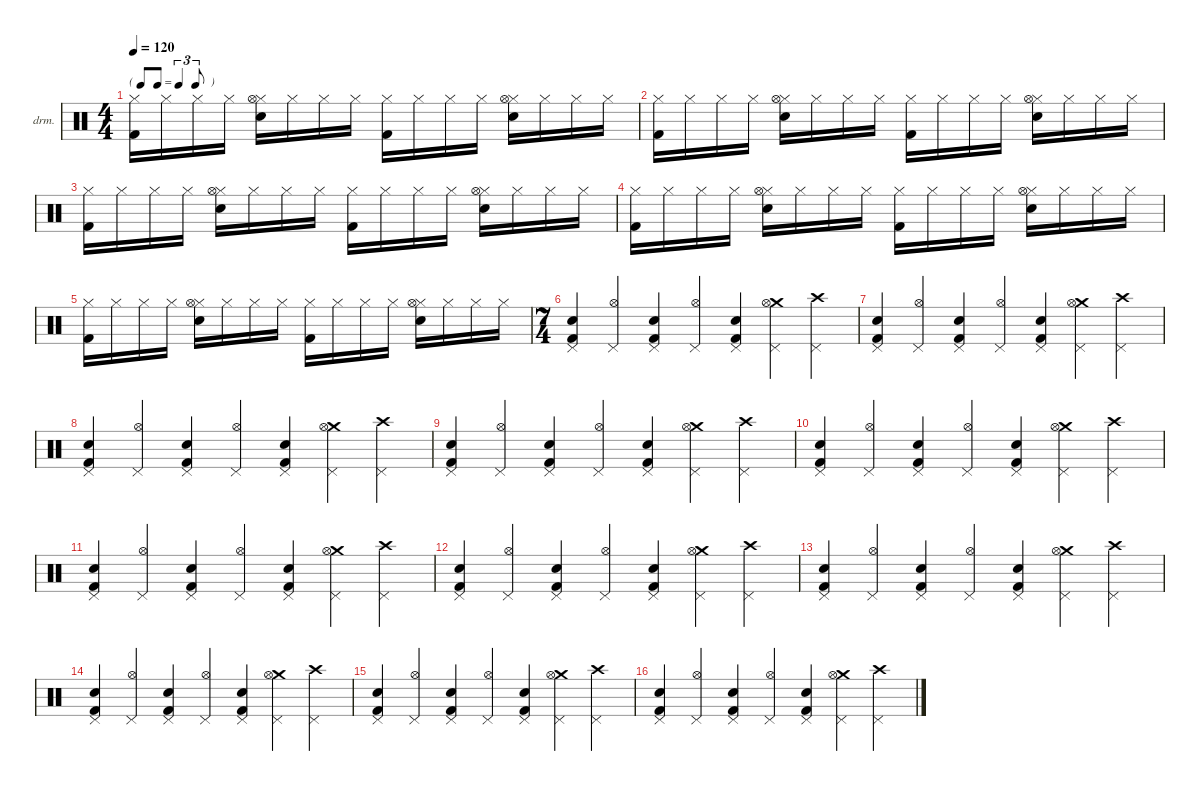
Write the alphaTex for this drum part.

\defaultSystemsLayout 4
\hideDynamics
\bracketExtendMode nobrackets
\firstSystemTrackNameOrientation horizontal
\otherSystemsTrackNameOrientation horizontal
\track ("Percussions" "drm.") {instrument percussion}
\staff {score}
\articulation defaults
\ts (4 4)
\tf triplet8th
\tempo 120
\clef neutral
\ks c
("Hi-Hat (closed)" "Kick (hit) 2").16{dy f beam Down} "Hi-Hat (closed)".16{beam Down} "Hi-Hat (closed)".16{beam Down} "Hi-Hat (closed)".16{beam Down} ("Snare (hit) 2" "Hi-Hat (closed)" "Hi-Hat (open)").16{beam Down} "Hi-Hat (closed)".16{beam Down} "Hi-Hat (closed)".16{beam Down} "Hi-Hat (closed)".16{beam Down} ("Hi-Hat (closed)" "Kick (hit) 2").16{beam Down} "Hi-Hat (closed)".16{beam Down} "Hi-Hat (closed)".16{beam Down} "Hi-Hat (closed)".16{beam Down} ("Snare (hit) 2" "Hi-Hat (closed)" "Hi-Hat (open)").16{beam Down} "Hi-Hat (closed)".16{beam Down} "Hi-Hat (closed)".16{beam Down} "Hi-Hat (closed)".16{beam Down} |
("Hi-Hat (closed)" "Kick (hit) 2").16{beam Down} "Hi-Hat (closed)".16{beam Down} "Hi-Hat (closed)".16{beam Down} "Hi-Hat (closed)".16{beam Down} ("Snare (hit) 2" "Hi-Hat (closed)" "Hi-Hat (open)").16{beam Down} "Hi-Hat (closed)".16{beam Down} "Hi-Hat (closed)".16{beam Down} "Hi-Hat (closed)".16{beam Down} ("Hi-Hat (closed)" "Kick (hit) 2").16{beam Down} "Hi-Hat (closed)".16{beam Down} "Hi-Hat (closed)".16{beam Down} "Hi-Hat (closed)".16{beam Down} ("Snare (hit) 2" "Hi-Hat (closed)" "Hi-Hat (open)").16{beam Down} "Hi-Hat (closed)".16{beam Down} "Hi-Hat (closed)".16{beam Down} "Hi-Hat (closed)".16{beam Down} |
("Hi-Hat (closed)" "Kick (hit) 2").16{beam Down} "Hi-Hat (closed)".16{beam Down} "Hi-Hat (closed)".16{beam Down} "Hi-Hat (closed)".16{beam Down} ("Snare (hit) 2" "Hi-Hat (closed)" "Hi-Hat (open)").16{beam Down} "Hi-Hat (closed)".16{beam Down} "Hi-Hat (closed)".16{beam Down} "Hi-Hat (closed)".16{beam Down} ("Hi-Hat (closed)" "Kick (hit) 2").16{beam Down} "Hi-Hat (closed)".16{beam Down} "Hi-Hat (closed)".16{beam Down} "Hi-Hat (closed)".16{beam Down} ("Snare (hit) 2" "Hi-Hat (closed)" "Hi-Hat (open)").16{beam Down} "Hi-Hat (closed)".16{beam Down} "Hi-Hat (closed)".16{beam Down} "Hi-Hat (closed)".16{beam Down} |
("Hi-Hat (closed)" "Kick (hit) 2").16{beam Down} "Hi-Hat (closed)".16{beam Down} "Hi-Hat (closed)".16{beam Down} "Hi-Hat (closed)".16{beam Down} ("Snare (hit) 2" "Hi-Hat (closed)" "Hi-Hat (open)").16{beam Down} "Hi-Hat (closed)".16{beam Down} "Hi-Hat (closed)".16{beam Down} "Hi-Hat (closed)".16{beam Down} ("Hi-Hat (closed)" "Kick (hit) 2").16{beam Down} "Hi-Hat (closed)".16{beam Down} "Hi-Hat (closed)".16{beam Down} "Hi-Hat (closed)".16{beam Down} ("Snare (hit) 2" "Hi-Hat (closed)" "Hi-Hat (open)").16{beam Down} "Hi-Hat (closed)".16{beam Down} "Hi-Hat (closed)".16{beam Down} "Hi-Hat (closed)".16{beam Down} |
("Hi-Hat (closed)" "Kick (hit) 2").16{beam Down} "Hi-Hat (closed)".16{beam Down} "Hi-Hat (closed)".16{beam Down} "Hi-Hat (closed)".16{beam Down} ("Snare (hit) 2" "Hi-Hat (closed)" "Hi-Hat (open)").16{beam Down} "Hi-Hat (closed)".16{beam Down} "Hi-Hat (closed)".16{beam Down} "Hi-Hat (closed)".16{beam Down} ("Hi-Hat (closed)" "Kick (hit) 2").16{beam Down} "Hi-Hat (closed)".16{beam Down} "Hi-Hat (closed)".16{beam Down} "Hi-Hat (closed)".16{beam Down} ("Snare (hit) 2" "Hi-Hat (closed)" "Hi-Hat (open)").16{beam Down} "Hi-Hat (closed)".16{beam Down} "Hi-Hat (closed)".16{beam Down} "Hi-Hat (closed)".16{beam Down} |
\ts (7 4)
\beaming (8 6 4 4)
("Kick (hit) 2" "Snare (hit) 2" "Pedal Hi-Hat (hit)").4{beam Up} ("Hi-Hat (open)" "Pedal Hi-Hat (hit)").4{beam Up} ("Kick (hit) 2" "Snare (hit) 2" "Pedal Hi-Hat (hit)").4{beam Up} ("Hi-Hat (open)" "Pedal Hi-Hat (hit)").4{beam Up} ("Kick (hit) 2" "Snare (hit) 2" "Pedal Hi-Hat (hit)").4{beam Up} ("Crash medium (hit)" "Hi-Hat (open)" "Pedal Hi-Hat (hit)").4{beam Down} ("Crash high (hit)" "Pedal Hi-Hat (hit)").4{beam Down} |
("Kick (hit) 2" "Snare (hit) 2" "Pedal Hi-Hat (hit)").4{beam Up} ("Hi-Hat (open)" "Pedal Hi-Hat (hit)").4{beam Up} ("Kick (hit) 2" "Snare (hit) 2" "Pedal Hi-Hat (hit)").4{beam Up} ("Hi-Hat (open)" "Pedal Hi-Hat (hit)").4{beam Up} ("Kick (hit) 2" "Snare (hit) 2" "Pedal Hi-Hat (hit)").4{beam Up} ("Crash medium (hit)" "Hi-Hat (open)" "Pedal Hi-Hat (hit)").4{beam Down} ("Crash high (hit)" "Pedal Hi-Hat (hit)").4{beam Down} |
("Kick (hit) 2" "Snare (hit) 2" "Pedal Hi-Hat (hit)").4{beam Up} ("Hi-Hat (open)" "Pedal Hi-Hat (hit)").4{beam Up} ("Kick (hit) 2" "Snare (hit) 2" "Pedal Hi-Hat (hit)").4{beam Up} ("Hi-Hat (open)" "Pedal Hi-Hat (hit)").4{beam Up} ("Kick (hit) 2" "Snare (hit) 2" "Pedal Hi-Hat (hit)").4{beam Up} ("Crash medium (hit)" "Hi-Hat (open)" "Pedal Hi-Hat (hit)").4{beam Down} ("Crash high (hit)" "Pedal Hi-Hat (hit)").4{beam Down} |
("Kick (hit) 2" "Snare (hit) 2" "Pedal Hi-Hat (hit)").4{beam Up} ("Hi-Hat (open)" "Pedal Hi-Hat (hit)").4{beam Up} ("Kick (hit) 2" "Snare (hit) 2" "Pedal Hi-Hat (hit)").4{beam Up} ("Hi-Hat (open)" "Pedal Hi-Hat (hit)").4{beam Up} ("Kick (hit) 2" "Snare (hit) 2" "Pedal Hi-Hat (hit)").4{beam Up} ("Crash medium (hit)" "Hi-Hat (open)" "Pedal Hi-Hat (hit)").4{beam Down} ("Crash high (hit)" "Pedal Hi-Hat (hit)").4{beam Down} |
("Kick (hit) 2" "Snare (hit) 2" "Pedal Hi-Hat (hit)").4{beam Up} ("Hi-Hat (open)" "Pedal Hi-Hat (hit)").4{beam Up} ("Kick (hit) 2" "Snare (hit) 2" "Pedal Hi-Hat (hit)").4{beam Up} ("Hi-Hat (open)" "Pedal Hi-Hat (hit)").4{beam Up} ("Kick (hit) 2" "Snare (hit) 2" "Pedal Hi-Hat (hit)").4{beam Up} ("Crash medium (hit)" "Hi-Hat (open)" "Pedal Hi-Hat (hit)").4{beam Down} ("Crash high (hit)" "Pedal Hi-Hat (hit)").4{beam Down} |
("Kick (hit) 2" "Snare (hit) 2" "Pedal Hi-Hat (hit)").4{beam Up} ("Hi-Hat (open)" "Pedal Hi-Hat (hit)").4{beam Up} ("Kick (hit) 2" "Snare (hit) 2" "Pedal Hi-Hat (hit)").4{beam Up} ("Hi-Hat (open)" "Pedal Hi-Hat (hit)").4{beam Up} ("Kick (hit) 2" "Snare (hit) 2" "Pedal Hi-Hat (hit)").4{beam Up} ("Crash medium (hit)" "Hi-Hat (open)" "Pedal Hi-Hat (hit)").4{beam Down} ("Crash high (hit)" "Pedal Hi-Hat (hit)").4{beam Down} |
("Kick (hit) 2" "Snare (hit) 2" "Pedal Hi-Hat (hit)").4{beam Up} ("Hi-Hat (open)" "Pedal Hi-Hat (hit)").4{beam Up} ("Kick (hit) 2" "Snare (hit) 2" "Pedal Hi-Hat (hit)").4{beam Up} ("Hi-Hat (open)" "Pedal Hi-Hat (hit)").4{beam Up} ("Kick (hit) 2" "Snare (hit) 2" "Pedal Hi-Hat (hit)").4{beam Up} ("Crash medium (hit)" "Hi-Hat (open)" "Pedal Hi-Hat (hit)").4{beam Down} ("Crash high (hit)" "Pedal Hi-Hat (hit)").4{beam Down} |
("Kick (hit) 2" "Snare (hit) 2" "Pedal Hi-Hat (hit)").4{beam Up} ("Hi-Hat (open)" "Pedal Hi-Hat (hit)").4{beam Up} ("Kick (hit) 2" "Snare (hit) 2" "Pedal Hi-Hat (hit)").4{beam Up} ("Hi-Hat (open)" "Pedal Hi-Hat (hit)").4{beam Up} ("Kick (hit) 2" "Snare (hit) 2" "Pedal Hi-Hat (hit)").4{beam Up} ("Crash medium (hit)" "Hi-Hat (open)" "Pedal Hi-Hat (hit)").4{beam Down} ("Crash high (hit)" "Pedal Hi-Hat (hit)").4{beam Down} |
("Kick (hit) 2" "Snare (hit) 2" "Pedal Hi-Hat (hit)").4{beam Up} ("Hi-Hat (open)" "Pedal Hi-Hat (hit)").4{beam Up} ("Kick (hit) 2" "Snare (hit) 2" "Pedal Hi-Hat (hit)").4{beam Up} ("Hi-Hat (open)" "Pedal Hi-Hat (hit)").4{beam Up} ("Kick (hit) 2" "Snare (hit) 2" "Pedal Hi-Hat (hit)").4{beam Up} ("Crash medium (hit)" "Hi-Hat (open)" "Pedal Hi-Hat (hit)").4{beam Down} ("Crash high (hit)" "Pedal Hi-Hat (hit)").4{beam Down} |
("Kick (hit) 2" "Snare (hit) 2" "Pedal Hi-Hat (hit)").4{beam Up} ("Hi-Hat (open)" "Pedal Hi-Hat (hit)").4{beam Up} ("Kick (hit) 2" "Snare (hit) 2" "Pedal Hi-Hat (hit)").4{beam Up} ("Hi-Hat (open)" "Pedal Hi-Hat (hit)").4{beam Up} ("Kick (hit) 2" "Snare (hit) 2" "Pedal Hi-Hat (hit)").4{beam Up} ("Crash medium (hit)" "Hi-Hat (open)" "Pedal Hi-Hat (hit)").4{beam Down} ("Crash high (hit)" "Pedal Hi-Hat (hit)").4{beam Down} |
("Kick (hit) 2" "Snare (hit) 2" "Pedal Hi-Hat (hit)").4{beam Up} ("Hi-Hat (open)" "Pedal Hi-Hat (hit)").4{beam Up} ("Kick (hit) 2" "Snare (hit) 2" "Pedal Hi-Hat (hit)").4{beam Up} ("Hi-Hat (open)" "Pedal Hi-Hat (hit)").4{beam Up} ("Kick (hit) 2" "Snare (hit) 2" "Pedal Hi-Hat (hit)").4{beam Up} ("Crash medium (hit)" "Hi-Hat (open)" "Pedal Hi-Hat (hit)").4{beam Down} ("Crash high (hit)" "Pedal Hi-Hat (hit)").4{beam Down}
